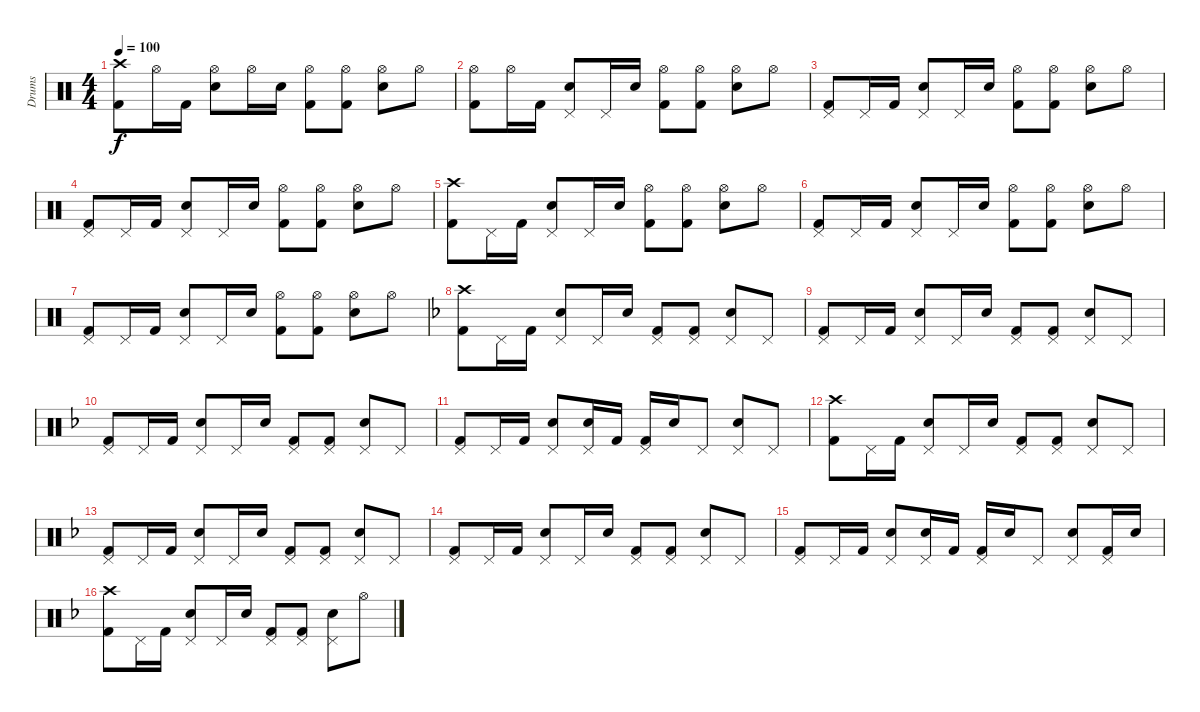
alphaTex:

\track ("Drums" "Drums") {instrument percussion}
\staff {score}
\articulation defaults
\ts (4 4)
\tempo 100
\clef neutral
\ks c
("Crash high (hit)" "Kick (hit) 2").8{dy f} "Hi-Hat (open)".16 "Kick (hit) 2".16 ("Hi-Hat (open)" "Electric Snare (hit)").8 "Hi-Hat (open)".16 "Electric Snare (hit)".16 ("Hi-Hat (open)" "Kick (hit) 2").8 ("Hi-Hat (open)" "Kick (hit) 2").8 ("Hi-Hat (open)" "Electric Snare (hit)").8 "Hi-Hat (open)".8 |
("Hi-Hat (open)" "Kick (hit) 2").8 "Hi-Hat (open)".16 "Kick (hit) 2".16 ("Pedal Hi-Hat (hit)" "Electric Snare (hit)").8 "Pedal Hi-Hat (hit)".16 "Electric Snare (hit)".16 ("Hi-Hat (open)" "Kick (hit) 2").8 ("Hi-Hat (open)" "Kick (hit) 2").8 ("Hi-Hat (open)" "Electric Snare (hit)").8 "Hi-Hat (open)".8 |
("Pedal Hi-Hat (hit)" "Kick (hit) 2").8 "Pedal Hi-Hat (hit)".16 "Kick (hit) 2".16 ("Pedal Hi-Hat (hit)" "Electric Snare (hit)").8 "Pedal Hi-Hat (hit)".16 "Electric Snare (hit)".16 ("Hi-Hat (open)" "Kick (hit) 2").8 ("Hi-Hat (open)" "Kick (hit) 2").8 ("Hi-Hat (open)" "Electric Snare (hit)").8 "Hi-Hat (open)".8 |
("Pedal Hi-Hat (hit)" "Kick (hit) 2").8 "Pedal Hi-Hat (hit)".16 "Kick (hit) 2".16 ("Pedal Hi-Hat (hit)" "Electric Snare (hit)").8 "Pedal Hi-Hat (hit)".16 "Electric Snare (hit)".16 ("Hi-Hat (open)" "Kick (hit) 2").8 ("Hi-Hat (open)" "Kick (hit) 2").8 ("Hi-Hat (open)" "Electric Snare (hit)").8 "Hi-Hat (open)".8 |
("Crash high (hit)" "Kick (hit) 2").8 "Pedal Hi-Hat (hit)".16 "Kick (hit) 2".16 ("Pedal Hi-Hat (hit)" "Electric Snare (hit)").8 "Pedal Hi-Hat (hit)".16 "Electric Snare (hit)".16 ("Hi-Hat (open)" "Kick (hit) 2").8 ("Hi-Hat (open)" "Kick (hit) 2").8 ("Hi-Hat (open)" "Electric Snare (hit)").8 "Hi-Hat (open)".8 |
("Pedal Hi-Hat (hit)" "Kick (hit) 2").8 "Pedal Hi-Hat (hit)".16 "Kick (hit) 2".16 ("Pedal Hi-Hat (hit)" "Electric Snare (hit)").8 "Pedal Hi-Hat (hit)".16 "Electric Snare (hit)".16 ("Hi-Hat (open)" "Kick (hit) 2").8 ("Hi-Hat (open)" "Kick (hit) 2").8 ("Hi-Hat (open)" "Electric Snare (hit)").8 "Hi-Hat (open)".8 |
("Pedal Hi-Hat (hit)" "Kick (hit) 2").8 "Pedal Hi-Hat (hit)".16 "Kick (hit) 2".16 ("Pedal Hi-Hat (hit)" "Electric Snare (hit)").8 "Pedal Hi-Hat (hit)".16 "Electric Snare (hit)".16 ("Hi-Hat (open)" "Kick (hit) 2").8 ("Hi-Hat (open)" "Kick (hit) 2").8 ("Hi-Hat (open)" "Electric Snare (hit)").8 "Hi-Hat (open)".8 |
\ks f
("Crash high (hit)" "Kick (hit) 2").8 "Pedal Hi-Hat (hit)".16 "Kick (hit) 2".16 ("Pedal Hi-Hat (hit)" "Electric Snare (hit)").8 "Pedal Hi-Hat (hit)".16 "Electric Snare (hit)".16 ("Pedal Hi-Hat (hit)" "Kick (hit) 2").8 ("Pedal Hi-Hat (hit)" "Kick (hit) 2").8 ("Pedal Hi-Hat (hit)" "Electric Snare (hit)").8 "Pedal Hi-Hat (hit)".8 |
("Pedal Hi-Hat (hit)" "Kick (hit) 2").8 "Pedal Hi-Hat (hit)".16 "Kick (hit) 2".16 ("Pedal Hi-Hat (hit)" "Electric Snare (hit)").8 "Pedal Hi-Hat (hit)".16 "Electric Snare (hit)".16 ("Pedal Hi-Hat (hit)" "Kick (hit) 2").8 ("Pedal Hi-Hat (hit)" "Kick (hit) 2").8 ("Pedal Hi-Hat (hit)" "Electric Snare (hit)").8 "Pedal Hi-Hat (hit)".8 |
("Pedal Hi-Hat (hit)" "Kick (hit) 2").8 "Pedal Hi-Hat (hit)".16 "Kick (hit) 2".16 ("Pedal Hi-Hat (hit)" "Electric Snare (hit)").8 "Pedal Hi-Hat (hit)".16 "Electric Snare (hit)".16 ("Pedal Hi-Hat (hit)" "Kick (hit) 2").8 ("Pedal Hi-Hat (hit)" "Kick (hit) 2").8 ("Pedal Hi-Hat (hit)" "Electric Snare (hit)").8 "Pedal Hi-Hat (hit)".8 |
("Pedal Hi-Hat (hit)" "Kick (hit) 2").8 "Pedal Hi-Hat (hit)".16 "Kick (hit) 2".16 ("Pedal Hi-Hat (hit)" "Electric Snare (hit)").8 ("Pedal Hi-Hat (hit)" "Electric Snare (hit)").16 "Kick (hit) 2".16 ("Pedal Hi-Hat (hit)" "Kick (hit) 2").16 "Electric Snare (hit)".16 "Pedal Hi-Hat (hit)".8 ("Pedal Hi-Hat (hit)" "Electric Snare (hit)").8 "Pedal Hi-Hat (hit)".8 |
("Crash high (hit)" "Kick (hit) 2").8 "Pedal Hi-Hat (hit)".16 "Kick (hit) 2".16 ("Pedal Hi-Hat (hit)" "Electric Snare (hit)").8 "Pedal Hi-Hat (hit)".16 "Electric Snare (hit)".16 ("Pedal Hi-Hat (hit)" "Kick (hit) 2").8 ("Pedal Hi-Hat (hit)" "Kick (hit) 2").8 ("Pedal Hi-Hat (hit)" "Electric Snare (hit)").8 "Pedal Hi-Hat (hit)".8 |
("Pedal Hi-Hat (hit)" "Kick (hit) 2").8 "Pedal Hi-Hat (hit)".16 "Kick (hit) 2".16 ("Pedal Hi-Hat (hit)" "Electric Snare (hit)").8 "Pedal Hi-Hat (hit)".16 "Electric Snare (hit)".16 ("Pedal Hi-Hat (hit)" "Kick (hit) 2").8 ("Pedal Hi-Hat (hit)" "Kick (hit) 2").8 ("Pedal Hi-Hat (hit)" "Electric Snare (hit)").8 "Pedal Hi-Hat (hit)".8 |
("Pedal Hi-Hat (hit)" "Kick (hit) 2").8 "Pedal Hi-Hat (hit)".16 "Kick (hit) 2".16 ("Pedal Hi-Hat (hit)" "Electric Snare (hit)").8 "Pedal Hi-Hat (hit)".16 "Electric Snare (hit)".16 ("Pedal Hi-Hat (hit)" "Kick (hit) 2").8 ("Pedal Hi-Hat (hit)" "Kick (hit) 2").8 ("Pedal Hi-Hat (hit)" "Electric Snare (hit)").8 "Pedal Hi-Hat (hit)".8 |
("Pedal Hi-Hat (hit)" "Kick (hit) 2").8 "Pedal Hi-Hat (hit)".16 "Kick (hit) 2".16 ("Pedal Hi-Hat (hit)" "Electric Snare (hit)").8 ("Pedal Hi-Hat (hit)" "Electric Snare (hit)").16 "Kick (hit) 2".16 ("Pedal Hi-Hat (hit)" "Kick (hit) 2").16 "Electric Snare (hit)".16 "Pedal Hi-Hat (hit)".8 ("Pedal Hi-Hat (hit)" "Electric Snare (hit)").8 ("Pedal Hi-Hat (hit)" "Kick (hit) 2").16 "Electric Snare (hit)".16 |
("Crash high (hit)" "Kick (hit) 2").8 "Pedal Hi-Hat (hit)".16 "Kick (hit) 2".16 ("Pedal Hi-Hat (hit)" "Electric Snare (hit)").8 "Pedal Hi-Hat (hit)".16 "Electric Snare (hit)".16 ("Pedal Hi-Hat (hit)" "Kick (hit) 2").8 ("Pedal Hi-Hat (hit)" "Kick (hit) 2").8 ("Pedal Hi-Hat (hit)" "Electric Snare (hit)").8 "Hi-Hat (open)".8
